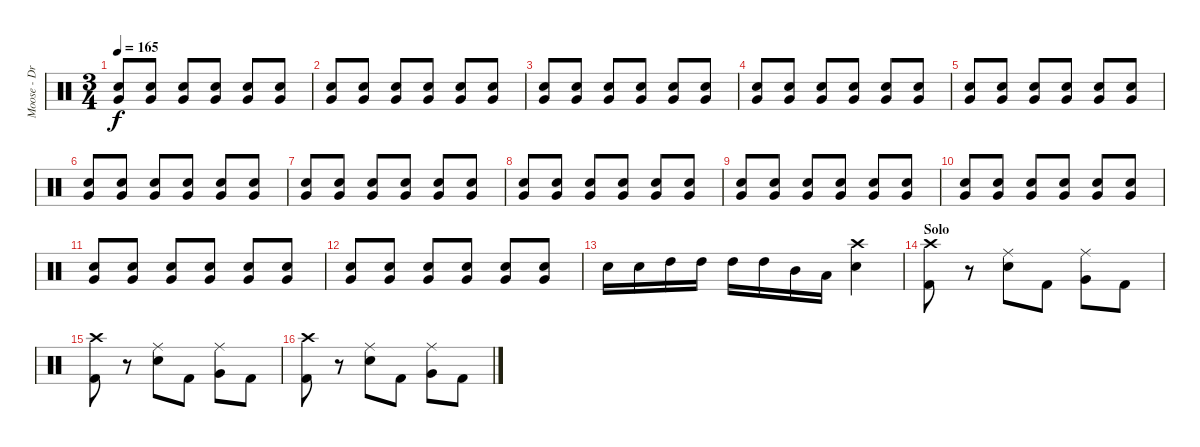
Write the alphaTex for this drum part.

\track ("Moose - Drums" "Moose - Dr") {instrument percussion}
\staff {score}
\articulation defaults
\ts (3 4)
\tempo 165
\clef neutral
\ks c
("Electric Snare (hit)" "Very Low Tom (hit)").8{dy f} ("Electric Snare (hit)" "Very Low Tom (hit)").8 ("Electric Snare (hit)" "Very Low Tom (hit)").8 ("Electric Snare (hit)" "Very Low Tom (hit)").8 ("Electric Snare (hit)" "Very Low Tom (hit)").8 ("Electric Snare (hit)" "Very Low Tom (hit)").8 |
("Electric Snare (hit)" "Very Low Tom (hit)").8{volume 9} ("Electric Snare (hit)" "Very Low Tom (hit)").8 ("Electric Snare (hit)" "Very Low Tom (hit)").8 ("Electric Snare (hit)" "Very Low Tom (hit)").8 ("Electric Snare (hit)" "Very Low Tom (hit)").8 ("Electric Snare (hit)" "Very Low Tom (hit)").8 |
("Electric Snare (hit)" "Very Low Tom (hit)").8 ("Electric Snare (hit)" "Very Low Tom (hit)").8 ("Electric Snare (hit)" "Very Low Tom (hit)").8 ("Electric Snare (hit)" "Very Low Tom (hit)").8 ("Electric Snare (hit)" "Very Low Tom (hit)").8 ("Electric Snare (hit)" "Very Low Tom (hit)").8 |
("Electric Snare (hit)" "Very Low Tom (hit)").8 ("Electric Snare (hit)" "Very Low Tom (hit)").8 ("Electric Snare (hit)" "Very Low Tom (hit)").8 ("Electric Snare (hit)" "Very Low Tom (hit)").8 ("Electric Snare (hit)" "Very Low Tom (hit)").8 ("Electric Snare (hit)" "Very Low Tom (hit)").8 |
("Electric Snare (hit)" "Very Low Tom (hit)").8 ("Electric Snare (hit)" "Very Low Tom (hit)").8 ("Electric Snare (hit)" "Very Low Tom (hit)").8 ("Electric Snare (hit)" "Very Low Tom (hit)").8 ("Electric Snare (hit)" "Very Low Tom (hit)").8 ("Electric Snare (hit)" "Very Low Tom (hit)").8 |
("Electric Snare (hit)" "Very Low Tom (hit)").8{volume 12} ("Electric Snare (hit)" "Very Low Tom (hit)").8 ("Electric Snare (hit)" "Very Low Tom (hit)").8 ("Electric Snare (hit)" "Very Low Tom (hit)").8 ("Electric Snare (hit)" "Very Low Tom (hit)").8 ("Electric Snare (hit)" "Very Low Tom (hit)").8 |
("Electric Snare (hit)" "Very Low Tom (hit)").8{volume 13} ("Electric Snare (hit)" "Very Low Tom (hit)").8 ("Electric Snare (hit)" "Very Low Tom (hit)").8 ("Electric Snare (hit)" "Very Low Tom (hit)").8 ("Electric Snare (hit)" "Very Low Tom (hit)").8 ("Electric Snare (hit)" "Very Low Tom (hit)").8 |
("Electric Snare (hit)" "Very Low Tom (hit)").8 ("Electric Snare (hit)" "Very Low Tom (hit)").8 ("Electric Snare (hit)" "Very Low Tom (hit)").8 ("Electric Snare (hit)" "Very Low Tom (hit)").8 ("Electric Snare (hit)" "Very Low Tom (hit)").8 ("Electric Snare (hit)" "Very Low Tom (hit)").8 |
("Electric Snare (hit)" "Very Low Tom (hit)").8 ("Electric Snare (hit)" "Very Low Tom (hit)").8 ("Electric Snare (hit)" "Very Low Tom (hit)").8 ("Electric Snare (hit)" "Very Low Tom (hit)").8 ("Electric Snare (hit)" "Very Low Tom (hit)").8 ("Electric Snare (hit)" "Very Low Tom (hit)").8 |
("Electric Snare (hit)" "Very Low Tom (hit)").8 ("Electric Snare (hit)" "Very Low Tom (hit)").8 ("Electric Snare (hit)" "Very Low Tom (hit)").8 ("Electric Snare (hit)" "Very Low Tom (hit)").8 ("Electric Snare (hit)" "Very Low Tom (hit)").8 ("Electric Snare (hit)" "Very Low Tom (hit)").8 |
("Electric Snare (hit)" "Very Low Tom (hit)").8 ("Electric Snare (hit)" "Very Low Tom (hit)").8 ("Electric Snare (hit)" "Very Low Tom (hit)").8 ("Electric Snare (hit)" "Very Low Tom (hit)").8 ("Electric Snare (hit)" "Very Low Tom (hit)").8 ("Electric Snare (hit)" "Very Low Tom (hit)").8 |
("Electric Snare (hit)" "Very Low Tom (hit)").8 ("Electric Snare (hit)" "Very Low Tom (hit)").8 ("Electric Snare (hit)" "Very Low Tom (hit)").8 ("Electric Snare (hit)" "Very Low Tom (hit)").8 ("Electric Snare (hit)" "Very Low Tom (hit)").8 ("Electric Snare (hit)" "Very Low Tom (hit)").8 |
"Electric Snare (hit)".16 "Electric Snare (hit)".16 "High Tom (hit)".16 "High Tom (hit)".16 "High Tom (hit)".16 "High Tom (hit)".16 "Mid Tom (hit)".16 "Low Tom (hit)".16 ("Crash high (hit)" "Electric Snare (hit)").4 |
\section ("" "Solo")
("Crash high (hit)" "Kick (hit) 2").8 r.8 ("Ride (middle)" "Electric Snare (hit)").8 "Kick (hit) 2".8 ("Ride (middle)" "Very Low Tom (hit)").8 "Kick (hit) 2".8 |
("Crash high (hit)" "Kick (hit) 2").8 r.8 ("Ride (middle)" "Electric Snare (hit)").8 "Kick (hit) 2".8 ("Ride (middle)" "Very Low Tom (hit)").8 "Kick (hit) 2".8 |
("Crash high (hit)" "Kick (hit) 2").8 r.8 ("Ride (middle)" "Electric Snare (hit)").8 "Kick (hit) 2".8 ("Ride (middle)" "Very Low Tom (hit)").8 "Kick (hit) 2".8
